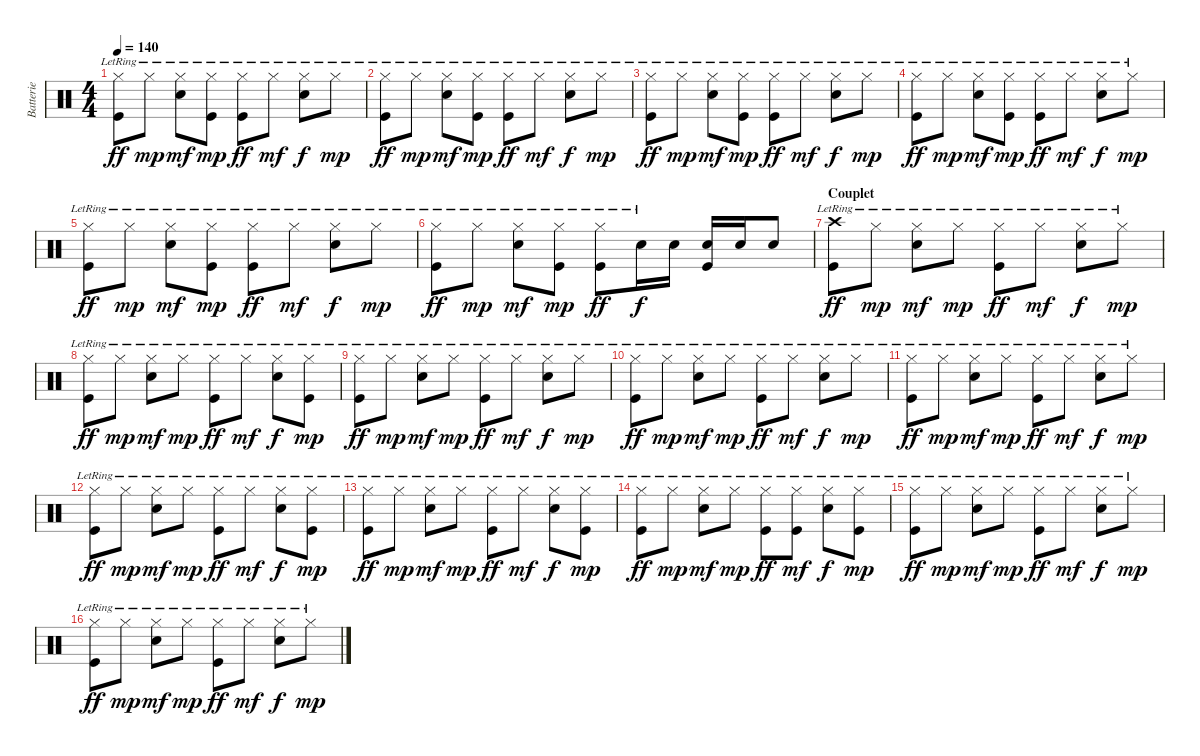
\track ("Batterie" "Batterie") {instrument percussion}
\staff {score}
\articulation defaults
\ts (4 4)
\tempo 140
\clef neutral
\ks c
("Hi-Hat (closed)"{lr} "Kick (hit)"{lr}).8{dy ff} "Hi-Hat (closed)"{lr}.8{dy mp} ("Hi-Hat (closed)"{lr} "Snare (hit) 2"{lr}).8{dy mf} ("Hi-Hat (closed)"{lr} "Kick (hit)").8{dy mp} ("Hi-Hat (closed)"{lr} "Kick (hit)"{lr}).8{dy ff} "Hi-Hat (closed)"{lr}.8{dy mf} ("Hi-Hat (closed)"{lr} "Snare (hit) 2"{lr}).8{dy f} "Hi-Hat (closed)"{lr}.8{dy mp} |
("Hi-Hat (closed)"{lr} "Kick (hit)"{lr}).8{dy ff} "Hi-Hat (closed)"{lr}.8{dy mp} ("Hi-Hat (closed)"{lr} "Snare (hit) 2"{lr}).8{dy mf} ("Hi-Hat (closed)"{lr} "Kick (hit)").8{dy mp} ("Hi-Hat (closed)"{lr} "Kick (hit)"{lr}).8{dy ff} "Hi-Hat (closed)"{lr}.8{dy mf} ("Hi-Hat (closed)"{lr} "Snare (hit) 2"{lr}).8{dy f} "Hi-Hat (closed)"{lr}.8{dy mp} |
("Hi-Hat (closed)"{lr} "Kick (hit)"{lr}).8{dy ff} "Hi-Hat (closed)"{lr}.8{dy mp} ("Hi-Hat (closed)"{lr} "Snare (hit) 2"{lr}).8{dy mf} ("Hi-Hat (closed)"{lr} "Kick (hit)").8{dy mp} ("Hi-Hat (closed)"{lr} "Kick (hit)"{lr}).8{dy ff} "Hi-Hat (closed)"{lr}.8{dy mf} ("Hi-Hat (closed)"{lr} "Snare (hit) 2"{lr}).8{dy f} "Hi-Hat (closed)"{lr}.8{dy mp} |
("Hi-Hat (closed)"{lr} "Kick (hit)"{lr}).8{dy ff} "Hi-Hat (closed)"{lr}.8{dy mp} ("Hi-Hat (closed)"{lr} "Snare (hit) 2"{lr}).8{dy mf} ("Hi-Hat (closed)"{lr} "Kick (hit)").8{dy mp} ("Hi-Hat (closed)"{lr} "Kick (hit)"{lr}).8{dy ff} "Hi-Hat (closed)"{lr}.8{dy mf} ("Hi-Hat (closed)"{lr} "Snare (hit) 2"{lr}).8{dy f} "Hi-Hat (closed)"{lr}.8{dy mp} |
("Hi-Hat (closed)"{lr} "Kick (hit)"{lr}).8{dy ff} "Hi-Hat (closed)"{lr}.8{dy mp} ("Hi-Hat (closed)"{lr} "Snare (hit) 2"{lr}).8{dy mf} ("Hi-Hat (closed)"{lr} "Kick (hit)").8{dy mp} ("Hi-Hat (closed)"{lr} "Kick (hit)"{lr}).8{dy ff} "Hi-Hat (closed)"{lr}.8{dy mf} ("Hi-Hat (closed)"{lr} "Snare (hit) 2"{lr}).8{dy f} "Hi-Hat (closed)"{lr}.8{dy mp} |
("Hi-Hat (closed)"{lr} "Kick (hit)"{lr}).8{dy ff} "Hi-Hat (closed)"{lr}.8{dy mp} ("Hi-Hat (closed)"{lr} "Snare (hit) 2"{lr}).8{dy mf} ("Hi-Hat (closed)"{lr} "Kick (hit)").8{dy mp} ("Hi-Hat (closed)"{lr} "Kick (hit)"{lr}).8{dy ff} "Snare (hit) 2"{lr}.16{dy f} "Snare (hit) 2".16 ("Snare (hit) 2" "Kick (hit)").16 "Snare (hit) 2".16 "Snare (hit) 2".8 |
\section ("" "Couplet")
("Crash high (hit)" "Kick (hit)"{lr}).8{dy ff} "Hi-Hat (closed)"{lr}.8{dy mp} ("Hi-Hat (closed)"{lr} "Snare (hit) 2"{lr}).8{dy mf} "Hi-Hat (closed)"{lr}.8{dy mp} ("Hi-Hat (closed)"{lr} "Kick (hit)"{lr}).8{dy ff} "Hi-Hat (closed)"{lr}.8{dy mf} ("Hi-Hat (closed)"{lr} "Snare (hit) 2"{lr}).8{dy f} "Hi-Hat (closed)"{lr}.8{dy mp} |
("Hi-Hat (closed)"{lr} "Kick (hit)"{lr}).8{dy ff} "Hi-Hat (closed)"{lr}.8{dy mp} ("Hi-Hat (closed)"{lr} "Snare (hit) 2"{lr}).8{dy mf} "Hi-Hat (closed)"{lr}.8{dy mp} ("Hi-Hat (closed)"{lr} "Kick (hit)"{lr}).8{dy ff} "Hi-Hat (closed)"{lr}.8{dy mf} ("Hi-Hat (closed)"{lr} "Snare (hit) 2"{lr}).8{dy f} ("Hi-Hat (closed)"{lr} "Kick (hit)").8{dy mp} |
("Hi-Hat (closed)"{lr} "Kick (hit)"{lr}).8{dy ff} "Hi-Hat (closed)"{lr}.8{dy mp} ("Hi-Hat (closed)"{lr} "Snare (hit) 2"{lr}).8{dy mf} "Hi-Hat (closed)"{lr}.8{dy mp} ("Hi-Hat (closed)"{lr} "Kick (hit)"{lr}).8{dy ff} "Hi-Hat (closed)"{lr}.8{dy mf} ("Hi-Hat (closed)"{lr} "Snare (hit) 2"{lr}).8{dy f} "Hi-Hat (closed)"{lr}.8{dy mp} |
("Hi-Hat (closed)"{lr} "Kick (hit)"{lr}).8{dy ff} "Hi-Hat (closed)"{lr}.8{dy mp} ("Hi-Hat (closed)"{lr} "Snare (hit) 2"{lr}).8{dy mf} "Hi-Hat (closed)"{lr}.8{dy mp} ("Hi-Hat (closed)"{lr} "Kick (hit)"{lr}).8{dy ff} "Hi-Hat (closed)"{lr}.8{dy mf} ("Hi-Hat (closed)"{lr} "Snare (hit) 2"{lr}).8{dy f} "Hi-Hat (closed)"{lr}.8{dy mp} |
("Hi-Hat (closed)"{lr} "Kick (hit)"{lr}).8{dy ff} "Hi-Hat (closed)"{lr}.8{dy mp} ("Hi-Hat (closed)"{lr} "Snare (hit) 2"{lr}).8{dy mf} "Hi-Hat (closed)"{lr}.8{dy mp} ("Hi-Hat (closed)"{lr} "Kick (hit)"{lr}).8{dy ff} "Hi-Hat (closed)"{lr}.8{dy mf} ("Hi-Hat (closed)"{lr} "Snare (hit) 2"{lr}).8{dy f} "Hi-Hat (closed)"{lr}.8{dy mp} |
("Hi-Hat (closed)"{lr} "Kick (hit)"{lr}).8{dy ff} "Hi-Hat (closed)"{lr}.8{dy mp} ("Hi-Hat (closed)"{lr} "Snare (hit) 2"{lr}).8{dy mf} "Hi-Hat (closed)"{lr}.8{dy mp} ("Hi-Hat (closed)"{lr} "Kick (hit)"{lr}).8{dy ff} "Hi-Hat (closed)"{lr}.8{dy mf} ("Hi-Hat (closed)"{lr} "Snare (hit) 2"{lr}).8{dy f} ("Hi-Hat (closed)"{lr} "Kick (hit)").8{dy mp} |
("Hi-Hat (closed)"{lr} "Kick (hit)"{lr}).8{dy ff} "Hi-Hat (closed)"{lr}.8{dy mp} ("Hi-Hat (closed)"{lr} "Snare (hit) 2"{lr}).8{dy mf} "Hi-Hat (closed)"{lr}.8{dy mp} ("Hi-Hat (closed)"{lr} "Kick (hit)"{lr}).8{dy ff} "Hi-Hat (closed)"{lr}.8{dy mf} ("Hi-Hat (closed)"{lr} "Snare (hit) 2"{lr}).8{dy f} ("Hi-Hat (closed)"{lr} "Kick (hit)").8{dy mp} |
("Hi-Hat (closed)"{lr} "Kick (hit)"{lr}).8{dy ff} "Hi-Hat (closed)"{lr}.8{dy mp} ("Hi-Hat (closed)"{lr} "Snare (hit) 2"{lr}).8{dy mf} "Hi-Hat (closed)"{lr}.8{dy mp} ("Hi-Hat (closed)"{lr} "Kick (hit)"{lr}).8{dy ff} ("Hi-Hat (closed)"{lr} "Kick (hit)").8{dy mf} ("Hi-Hat (closed)"{lr} "Snare (hit) 2"{lr}).8{dy f} ("Hi-Hat (closed)"{lr} "Kick (hit)").8{dy mp} |
("Hi-Hat (closed)"{lr} "Kick (hit)"{lr}).8{dy ff} "Hi-Hat (closed)"{lr}.8{dy mp} ("Hi-Hat (closed)"{lr} "Snare (hit) 2"{lr}).8{dy mf} "Hi-Hat (closed)"{lr}.8{dy mp} ("Hi-Hat (closed)"{lr} "Kick (hit)"{lr}).8{dy ff} "Hi-Hat (closed)"{lr}.8{dy mf} ("Hi-Hat (closed)"{lr} "Snare (hit) 2"{lr}).8{dy f} "Hi-Hat (closed)"{lr}.8{dy mp} |
("Hi-Hat (closed)"{lr} "Kick (hit)"{lr}).8{dy ff} "Hi-Hat (closed)"{lr}.8{dy mp} ("Hi-Hat (closed)"{lr} "Snare (hit) 2"{lr}).8{dy mf} "Hi-Hat (closed)"{lr}.8{dy mp} ("Hi-Hat (closed)"{lr} "Kick (hit)"{lr}).8{dy ff} "Hi-Hat (closed)"{lr}.8{dy mf} ("Hi-Hat (closed)"{lr} "Snare (hit) 2"{lr}).8{dy f} "Hi-Hat (closed)"{lr}.8{dy mp}
